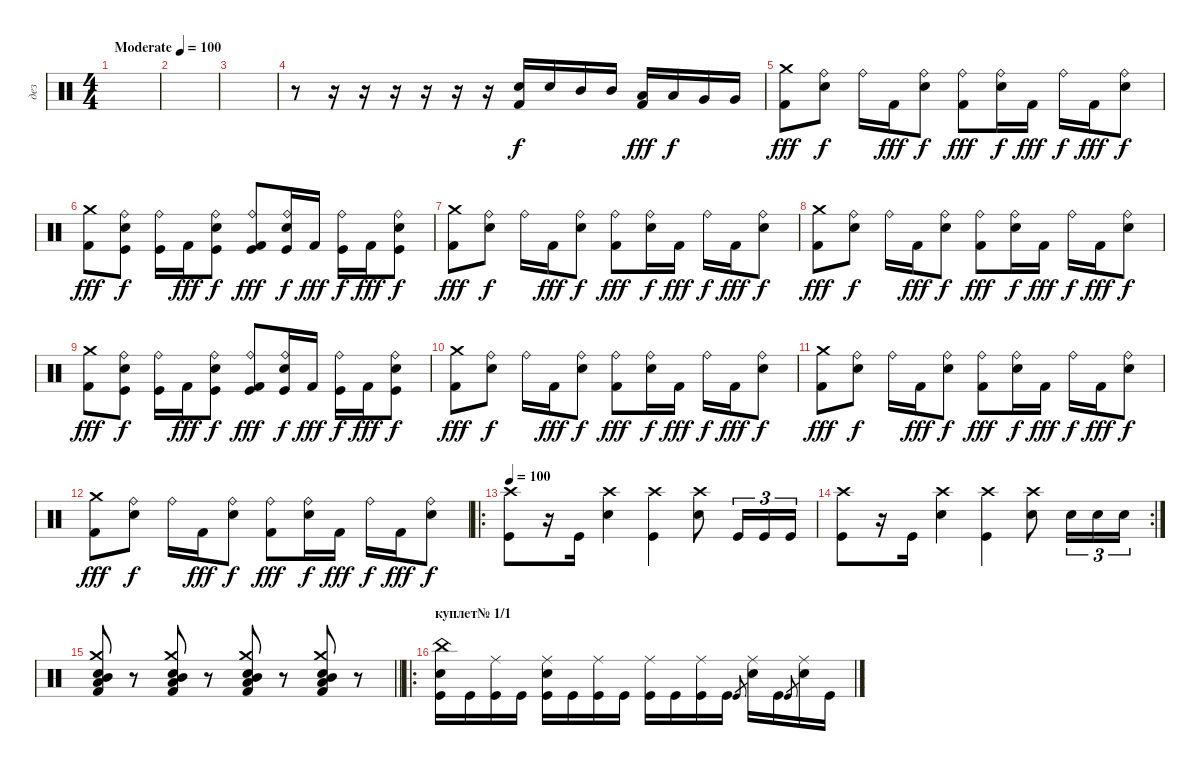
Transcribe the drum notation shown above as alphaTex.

\track ("дез" "дез") {instrument percussion}
\staff {score}
\articulation defaults
\ts (4 4)
\tempo (100 "Moderate")
\clef neutral
\ks c
|
|
|
r.8 r.16 r.16 r.16 r.16 r.16 r.16 ("Snare (hit) 2" "Kick (hit) 2").16 "Snare (hit) 2".16{dy f} "Mid Tom (hit)".16 "Mid Tom (hit)".16 ("Low Tom (hit)" "Kick (hit) 2").16{dy fff} "Low Tom (hit)".16{dy f} "Very Low Tom (hit)".16 "Very Low Tom (hit)".16 |
("Crash medium (hit)" "Kick (hit) 2").8{dy fff} ("Ride (bell)" "Snare (hit) 2").8{dy f} "Ride (bell)".16 "Kick (hit) 2".16{dy fff} ("Ride (bell)" "Snare (hit) 2").8{dy f} ("Ride (bell)" "Kick (hit) 2").8{dy fff} ("Ride (bell)" "Snare (hit) 2").16{dy f} "Kick (hit) 2".16{dy fff} "Ride (bell)".16{dy f} "Kick (hit) 2".16{dy fff} ("Ride (bell)" "Snare (hit) 2").8{dy f} |
("Crash medium (hit)" "Kick (hit) 2").8{dy fff} ("Ride (bell)" "Kick (hit)" "Snare (hit) 2").8{dy f} ("Ride (bell)" "Kick (hit)").16 "Kick (hit) 2".16{dy fff} ("Ride (bell)" "Kick (hit)" "Snare (hit) 2").8{dy f} ("Ride (bell)" "Kick (hit)" "Kick (hit) 2").8{dy fff} ("Ride (bell)" "Kick (hit)" "Snare (hit) 2").16{dy f} "Kick (hit) 2".16{dy fff} ("Ride (bell)" "Kick (hit)").16{dy f} "Kick (hit) 2".16{dy fff} ("Ride (bell)" "Kick (hit)" "Snare (hit) 2").8{dy f} |
("Crash medium (hit)" "Kick (hit) 2").8{dy fff} ("Ride (bell)" "Snare (hit) 2").8{dy f} "Ride (bell)".16 "Kick (hit) 2".16{dy fff} ("Ride (bell)" "Snare (hit) 2").8{dy f} ("Ride (bell)" "Kick (hit) 2").8{dy fff} ("Ride (bell)" "Snare (hit) 2").16{dy f} "Kick (hit) 2".16{dy fff} "Ride (bell)".16{dy f} "Kick (hit) 2".16{dy fff} ("Ride (bell)" "Snare (hit) 2").8{dy f} |
("Crash medium (hit)" "Kick (hit) 2").8{dy fff} ("Ride (bell)" "Snare (hit) 2").8{dy f} "Ride (bell)".16 "Kick (hit) 2".16{dy fff} ("Ride (bell)" "Snare (hit) 2").8{dy f} ("Ride (bell)" "Kick (hit) 2").8{dy fff} ("Ride (bell)" "Snare (hit) 2").16{dy f} "Kick (hit) 2".16{dy fff} "Ride (bell)".16{dy f} "Kick (hit) 2".16{dy fff} ("Ride (bell)" "Snare (hit) 2").8{dy f} |
("Crash medium (hit)" "Kick (hit) 2").8{dy fff} ("Ride (bell)" "Kick (hit)" "Snare (hit) 2").8{dy f} ("Ride (bell)" "Kick (hit)").16 "Kick (hit) 2".16{dy fff} ("Ride (bell)" "Kick (hit)" "Snare (hit) 2").8{dy f} ("Ride (bell)" "Kick (hit)" "Kick (hit) 2").8{dy fff} ("Ride (bell)" "Kick (hit)" "Snare (hit) 2").16{dy f} "Kick (hit) 2".16{dy fff} ("Ride (bell)" "Kick (hit)").16{dy f} "Kick (hit) 2".16{dy fff} ("Ride (bell)" "Kick (hit)" "Snare (hit) 2").8{dy f} |
("Crash medium (hit)" "Kick (hit) 2").8{dy fff} ("Ride (bell)" "Snare (hit) 2").8{dy f} "Ride (bell)".16 "Kick (hit) 2".16{dy fff} ("Ride (bell)" "Snare (hit) 2").8{dy f} ("Ride (bell)" "Kick (hit) 2").8{dy fff} ("Ride (bell)" "Snare (hit) 2").16{dy f} "Kick (hit) 2".16{dy fff} "Ride (bell)".16{dy f} "Kick (hit) 2".16{dy fff} ("Ride (bell)" "Snare (hit) 2").8{dy f} |
("Crash medium (hit)" "Kick (hit) 2").8{dy fff} ("Ride (bell)" "Snare (hit) 2").8{dy f} "Ride (bell)".16 "Kick (hit) 2".16{dy fff} ("Ride (bell)" "Snare (hit) 2").8{dy f} ("Ride (bell)" "Kick (hit) 2").8{dy fff} ("Ride (bell)" "Snare (hit) 2").16{dy f} "Kick (hit) 2".16{dy fff} "Ride (bell)".16{dy f} "Kick (hit) 2".16{dy fff} ("Ride (bell)" "Snare (hit) 2").8{dy f} |
("Crash medium (hit)" "Kick (hit) 2").8{dy fff} ("Ride (bell)" "Snare (hit) 2").8{dy f} "Ride (bell)".16 "Kick (hit) 2".16{dy fff} ("Ride (bell)" "Snare (hit) 2").8{dy f} ("Ride (bell)" "Kick (hit) 2").8{dy fff} ("Ride (bell)" "Snare (hit) 2").16{dy f} "Kick (hit) 2".16{dy fff} "Ride (bell)".16{dy f} "Kick (hit) 2".16{dy fff} ("Ride (bell)" "Snare (hit) 2").8{dy f} |
\ro
\tempo 100
("Crash high (hit)" "Kick (hit)").8 r.16 "Kick (hit)".16 ("Crash high (hit)" "Electric Snare (hit)").4 ("Crash high (hit)" "Kick (hit)").4 ("Crash high (hit)" "Electric Snare (hit)").8 "Kick (hit)".16{tu (3 2)} "Kick (hit)".16{tu (3 2)} "Kick (hit)".16{tu (3 2)} |
\rc 2
("Crash high (hit)" "Kick (hit)").8 r.16 "Kick (hit)".16 ("Crash high (hit)" "Electric Snare (hit)").4 ("Crash high (hit)" "Kick (hit)").4 ("Crash high (hit)" "Electric Snare (hit)").8 "Electric Snare (hit)".16{tu (3 2)} "Electric Snare (hit)".16{tu (3 2)} "Electric Snare (hit)".16{tu (3 2)} |
\barLineRight lightlight
("Crash medium (hit)" "Low Tom (hit)" "Mid Tom (hit)" "Kick (hit) 2" "Electric Snare (hit)").8 r.8 ("Crash medium (hit)" "Low Tom (hit)" "Mid Tom (hit)" "Kick (hit) 2" "Electric Snare (hit)").8 r.8 ("Crash medium (hit)" "Low Tom (hit)" "Mid Tom (hit)" "Kick (hit) 2" "Electric Snare (hit)").8 r.8 ("Crash medium (hit)" "Low Tom (hit)" "Mid Tom (hit)" "Kick (hit) 2" "Electric Snare (hit)").8 r.8 |
\ro
\section ("" "куплет№ 1/1")
("China (hit)" "Electric Snare (hit)" "Kick (hit)").16 "Kick (hit)".16 ("Ride (middle)" "Kick (hit)").16 "Kick (hit)".16 ("Ride (middle)" "Electric Snare (hit)" "Kick (hit)").16 "Kick (hit)".16 ("Ride (middle)" "Kick (hit)").16 "Kick (hit)".16 ("Ride (middle)" "Kick (hit)").16 "Kick (hit)".16 ("Ride (middle)" "Kick (hit)").16 "Kick (hit)".16 "Kick (hit)"{sl}.8{gr} ("Ride (middle)" "Electric Snare (hit)").16 "Kick (hit)".16 "Kick (hit)"{sl}.8{gr} ("Ride (middle)" "Electric Snare (hit)").16 "Kick (hit)".16
